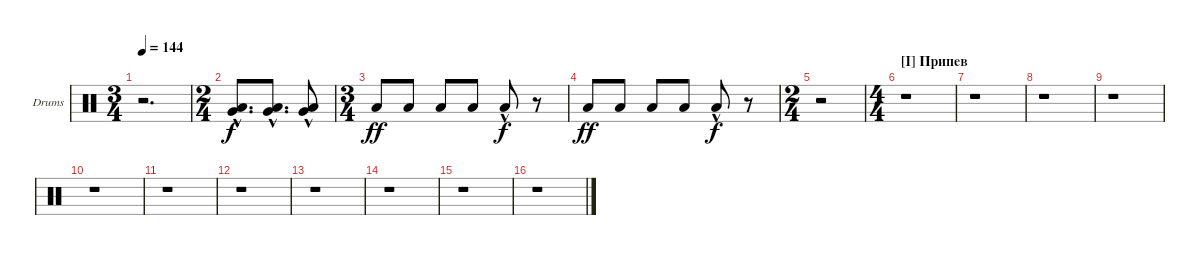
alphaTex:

\defaultSystemsLayout 4
\bracketExtendMode groupsimilarinstruments
\firstSystemTrackNameOrientation horizontal
\otherSystemsTrackNameOrientation horizontal
\track ("Tom" "Drums") {instrument percussion}
\staff {score}
\articulation defaults
\ts (3 4)
\tempo 144
\clef neutral
\ks c
r.2{d dy f} |
\ts (2 4)
("Very Low Tom (hit)"{hac} "Low Tom (hit)"{hac}).8{d} ("Very Low Tom (hit)"{hac} "Low Tom (hit)"{hac}).8{d} ("Very Low Tom (hit)"{hac} "Low Tom (hit)"{hac}).8 |
\ts (3 4)
"Low Tom (hit)".8{dy ff} "Low Tom (hit)".8 "Low Tom (hit)".8 "Low Tom (hit)".8 "Low Tom (hit)"{hac}.8{dy f} r.8 |
"Low Tom (hit)".8{dy ff} "Low Tom (hit)".8 "Low Tom (hit)".8 "Low Tom (hit)".8 "Low Tom (hit)"{hac}.8{dy f} r.8 |
\ts (2 4)
r.2 |
\ts (4 4)
\section ("I" "Припев ")
r.1 |
r.1 |
r.1 |
r.1 |
r.1 |
r.1 |
r.1 |
r.1 |
r.1 |
r.1 |
r.1
